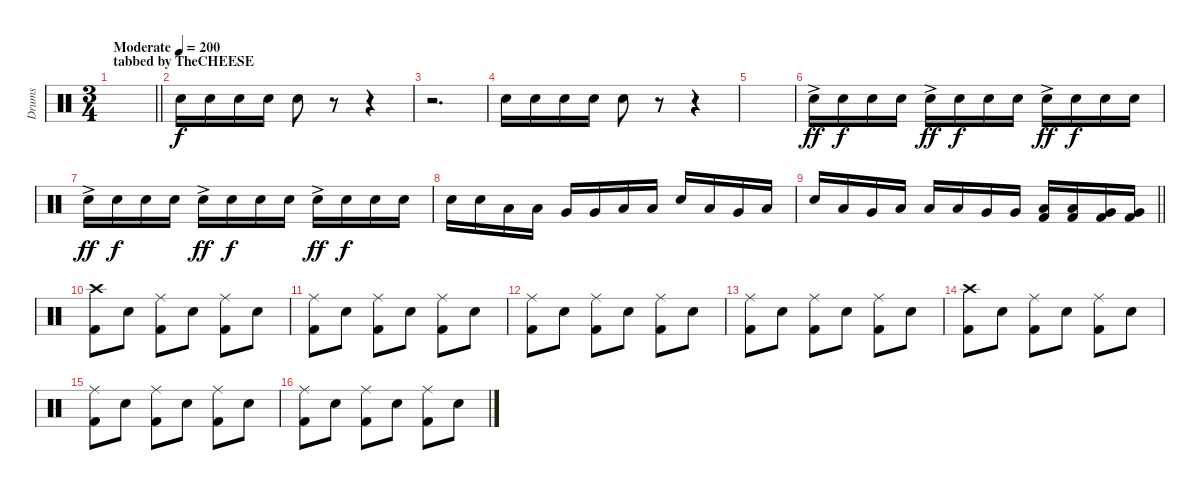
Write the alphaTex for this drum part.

\track ("Drums" "Drums") {instrument percussion}
\staff {score}
\articulation defaults
\ts (3 4)
\section ("" "tabbed by TheCHEESE")
\tempo (200 "Moderate")
\clef neutral
\barLineRight lightlight
\ks c
|
"Electric Snare (hit)".16 "Electric Snare (hit)".16 "Electric Snare (hit)".16 "Electric Snare (hit)".16 "Electric Snare (hit)".8 r.8 r.4 |
r.2{d} |
"Electric Snare (hit)".16 "Electric Snare (hit)".16 "Electric Snare (hit)".16 "Electric Snare (hit)".16 "Electric Snare (hit)".8 r.8 r.4 |
|
"Electric Snare (hit)"{ac}.16{dy ff} "Electric Snare (hit)".16{dy f} "Electric Snare (hit)".16 "Electric Snare (hit)".16 "Electric Snare (hit)"{ac}.16{dy ff} "Electric Snare (hit)".16{dy f} "Electric Snare (hit)".16 "Electric Snare (hit)".16 "Electric Snare (hit)"{ac}.16{dy ff} "Electric Snare (hit)".16{dy f} "Electric Snare (hit)".16 "Electric Snare (hit)".16 |
"Electric Snare (hit)"{ac}.16{dy ff} "Electric Snare (hit)".16{dy f} "Electric Snare (hit)".16 "Electric Snare (hit)".16 "Electric Snare (hit)"{ac}.16{dy ff} "Electric Snare (hit)".16{dy f} "Electric Snare (hit)".16 "Electric Snare (hit)".16 "Electric Snare (hit)"{ac}.16{dy ff} "Electric Snare (hit)".16{dy f} "Electric Snare (hit)".16 "Electric Snare (hit)".16 |
"Electric Snare (hit)".16 "Electric Snare (hit)".16 "Low Tom (hit)".16 "Low Tom (hit)".16 "Very Low Tom (hit)".16 "Very Low Tom (hit)".16 "Low Floor Tom (hit)".16 "Low Floor Tom (hit)".16 "Electric Snare (hit)".16 "Low Floor Tom (hit)".16 "Very Low Tom (hit)".16 "Low Floor Tom (hit)".16 |
\barLineRight lightlight "Electric Snare (hit)".16 "Low Floor Tom (hit)".16 "Very Low Tom (hit)".16 "Low Floor Tom (hit)".16 "Low Floor Tom (hit)".16 "Low Floor Tom (hit)".16 "Very Low Tom (hit)".16 "Very Low Tom (hit)".16
("Low Tom (hit)" "Kick (hit) 2").16 ("Low Tom (hit)" "Kick (hit) 2").16 ("Very Low Tom (hit)" "Kick (hit) 2").16 ("Very Low Tom (hit)" "Kick (hit) 2").16 |
("Crash high (hit)" "Kick (hit) 2").8 "Electric Snare (hit)".8 ("Ride (middle)" "Kick (hit) 2").8 "Electric Snare (hit)".8 ("Ride (middle)" "Kick (hit) 2").8 "Electric Snare (hit)".8 |
("Ride (middle)" "Kick (hit) 2").8 "Electric Snare (hit)".8 ("Ride (middle)" "Kick (hit) 2").8 "Electric Snare (hit)".8 ("Ride (middle)" "Kick (hit) 2").8 "Electric Snare (hit)".8 |
("Ride (middle)" "Kick (hit) 2").8 "Electric Snare (hit)".8 ("Ride (middle)" "Kick (hit) 2").8 "Electric Snare (hit)".8 ("Ride (middle)" "Kick (hit) 2").8 "Electric Snare (hit)".8 |
("Ride (middle)" "Kick (hit) 2").8 "Electric Snare (hit)".8 ("Ride (middle)" "Kick (hit) 2").8 "Electric Snare (hit)".8 ("Ride (middle)" "Kick (hit) 2").8 "Electric Snare (hit)".8 |
("Crash high (hit)" "Kick (hit) 2").8 "Electric Snare (hit)".8 ("Ride (middle)" "Kick (hit) 2").8 "Electric Snare (hit)".8 ("Ride (middle)" "Kick (hit) 2").8 "Electric Snare (hit)".8 |
("Ride (middle)" "Kick (hit) 2").8 "Electric Snare (hit)".8 ("Ride (middle)" "Kick (hit) 2").8 "Electric Snare (hit)".8 ("Ride (middle)" "Kick (hit) 2").8 "Electric Snare (hit)".8 |
("Ride (middle)" "Kick (hit) 2").8 "Electric Snare (hit)".8 ("Ride (middle)" "Kick (hit) 2").8 "Electric Snare (hit)".8 ("Ride (middle)" "Kick (hit) 2").8 "Electric Snare (hit)".8
